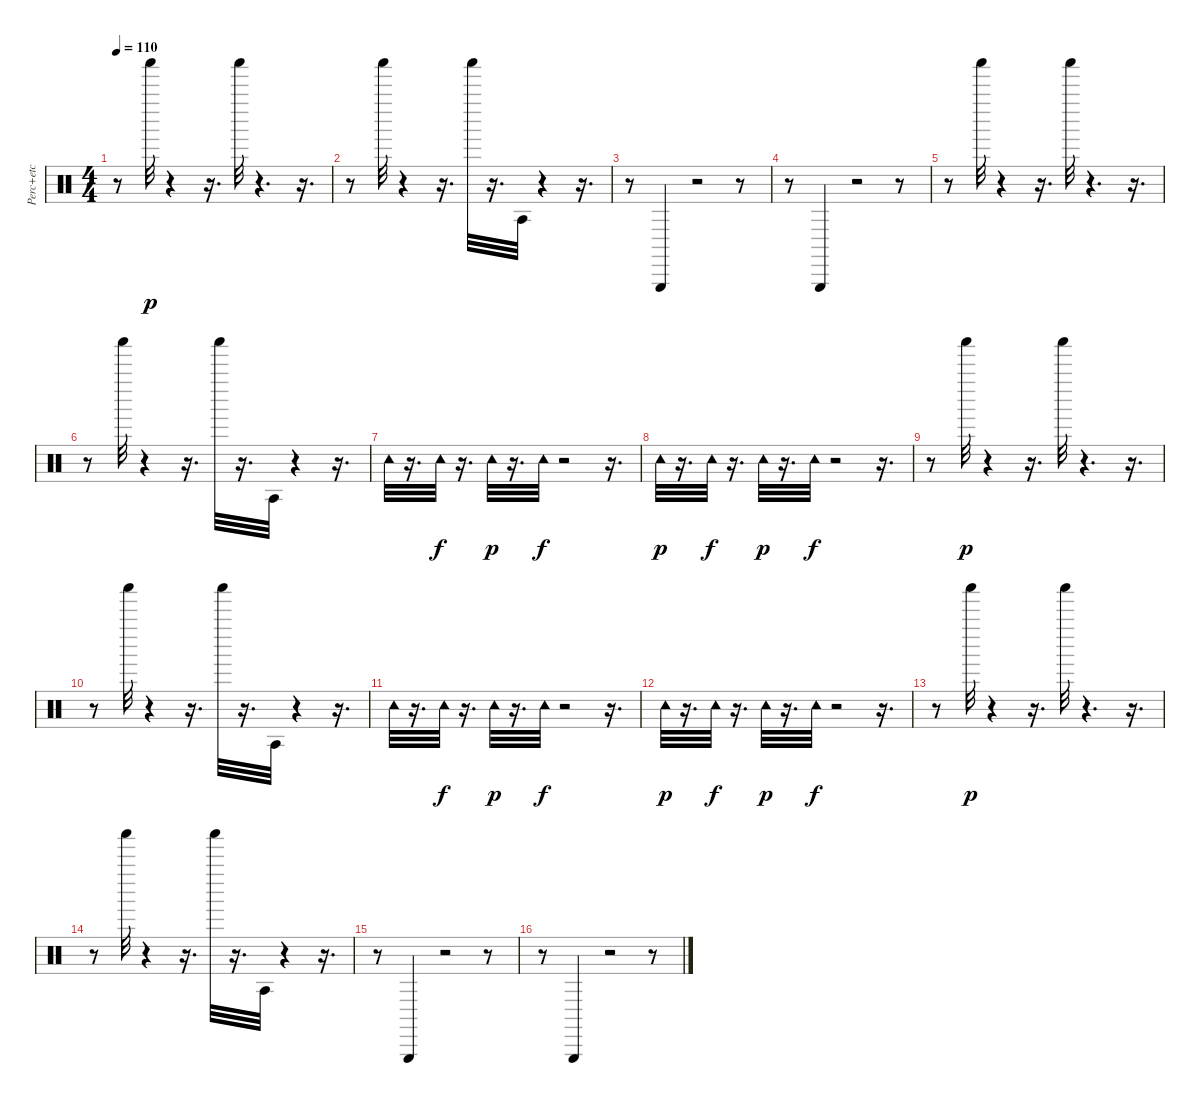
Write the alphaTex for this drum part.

\track ("Perc+etc" "Perc+etc") {instrument percussion}
\staff {score}
\articulation defaults
\ts (4 4)
\tempo 110
\clef neutral
\ks c
r.8{dy f} "Shaker (hit)".32{dy p} r.4 r.16{d} "Shaker (hit)".32 r.4{d} r.16{d} |
r.8 "Shaker (hit)".32 r.4 r.16{d} "Shaker (hit)".32 r.16{d} "Agogo tow (hit)".32 r.4 r.16{d} |
r.8 "Triangle (hit)".4 r.2 r.8 |
r.8 "Triangle (hit)".4 r.2 r.8 |
r.8 "Shaker (hit)".32 r.4 r.16{d} "Shaker (hit)".32 r.4{d} r.16{d} |
r.8 "Shaker (hit)".32 r.4 r.16{d} "Shaker (hit)".32 r.16{d} "Agogo tow (hit)".32 r.4 r.16{d} |
"Tambourine (hit)".32 r.16{d} "Tambourine (hit)".32{dy f} r.16{d} "Tambourine (hit)".32{dy p} r.16{d} "Tambourine (hit)".32{dy f} r.2 r.16{d} |
"Tambourine (hit)".32{dy p} r.16{d} "Tambourine (hit)".32{dy f} r.16{d} "Tambourine (hit)".32{dy p} r.16{d} "Tambourine (hit)".32{dy f} r.2 r.16{d} |
r.8 "Shaker (hit)".32{dy p} r.4 r.16{d} "Shaker (hit)".32 r.4{d} r.16{d} |
r.8 "Shaker (hit)".32 r.4 r.16{d} "Shaker (hit)".32 r.16{d} "Agogo tow (hit)".32 r.4 r.16{d} |
"Tambourine (hit)".32 r.16{d} "Tambourine (hit)".32{dy f} r.16{d} "Tambourine (hit)".32{dy p} r.16{d} "Tambourine (hit)".32{dy f} r.2 r.16{d} |
"Tambourine (hit)".32{dy p} r.16{d} "Tambourine (hit)".32{dy f} r.16{d} "Tambourine (hit)".32{dy p} r.16{d} "Tambourine (hit)".32{dy f} r.2 r.16{d} |
r.8 "Shaker (hit)".32{dy p} r.4 r.16{d} "Shaker (hit)".32 r.4{d} r.16{d} |
r.8 "Shaker (hit)".32 r.4 r.16{d} "Shaker (hit)".32 r.16{d} "Agogo tow (hit)".32 r.4 r.16{d} |
r.8 "Triangle (hit)".4 r.2 r.8 |
r.8 "Triangle (hit)".4 r.2 r.8
